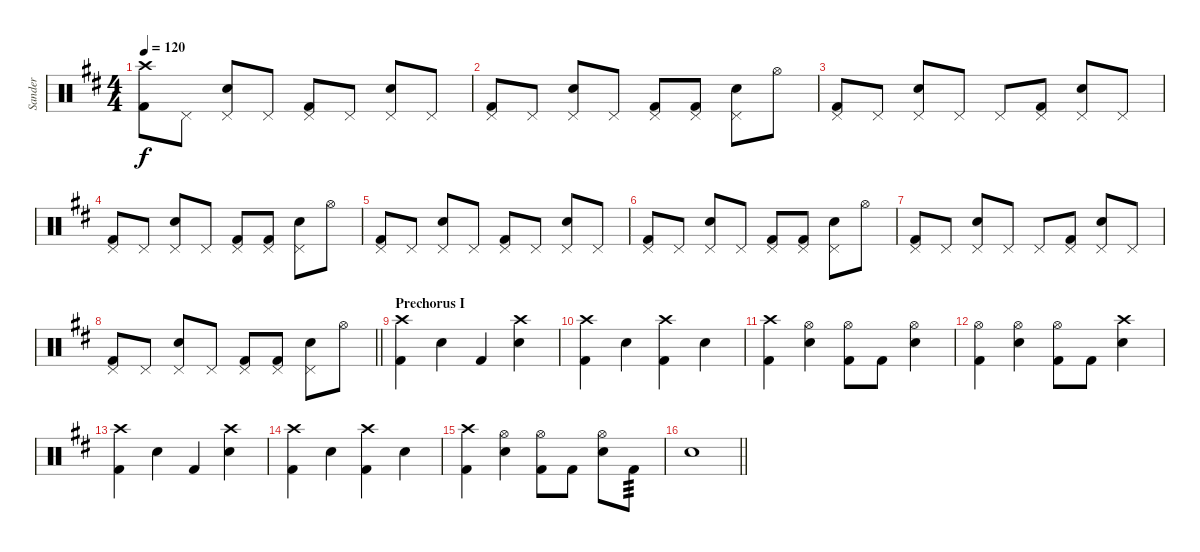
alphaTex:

\track ("Sander" "Sander") {instrument percussion}
\staff {score}
\articulation defaults
\ts (4 4)
\tempo 120
\clef neutral
\ks bminor
("Crash high (hit)" "Kick (hit) 2").8{dy f} "Pedal Hi-Hat (hit)".8 ("Pedal Hi-Hat (hit)" "Snare (hit) 2").8 "Pedal Hi-Hat (hit)".8 ("Pedal Hi-Hat (hit)" "Kick (hit) 2").8 "Pedal Hi-Hat (hit)".8 ("Pedal Hi-Hat (hit)" "Snare (hit) 2").8 "Pedal Hi-Hat (hit)".8 |
("Pedal Hi-Hat (hit)" "Kick (hit) 2").8 "Pedal Hi-Hat (hit)".8 ("Pedal Hi-Hat (hit)" "Snare (hit) 2").8 "Pedal Hi-Hat (hit)".8 ("Pedal Hi-Hat (hit)" "Kick (hit) 2").8 ("Pedal Hi-Hat (hit)" "Kick (hit) 2").8 ("Pedal Hi-Hat (hit)" "Snare (hit) 2").8 "Hi-Hat (open)".8 |
("Pedal Hi-Hat (hit)" "Kick (hit) 2").8 "Pedal Hi-Hat (hit)".8 ("Pedal Hi-Hat (hit)" "Snare (hit) 2").8 "Pedal Hi-Hat (hit)".8 "Pedal Hi-Hat (hit)".8 ("Pedal Hi-Hat (hit)" "Kick (hit) 2").8 ("Pedal Hi-Hat (hit)" "Snare (hit) 2").8 "Pedal Hi-Hat (hit)".8 |
("Pedal Hi-Hat (hit)" "Kick (hit) 2").8 "Pedal Hi-Hat (hit)".8 ("Pedal Hi-Hat (hit)" "Snare (hit) 2").8 "Pedal Hi-Hat (hit)".8 ("Pedal Hi-Hat (hit)" "Kick (hit) 2").8 ("Pedal Hi-Hat (hit)" "Kick (hit) 2").8 ("Pedal Hi-Hat (hit)" "Snare (hit) 2").8 "Hi-Hat (open)".8 |
("Pedal Hi-Hat (hit)" "Kick (hit) 2").8 "Pedal Hi-Hat (hit)".8 ("Pedal Hi-Hat (hit)" "Snare (hit) 2").8 "Pedal Hi-Hat (hit)".8 ("Pedal Hi-Hat (hit)" "Kick (hit) 2").8 "Pedal Hi-Hat (hit)".8 ("Pedal Hi-Hat (hit)" "Snare (hit) 2").8 "Pedal Hi-Hat (hit)".8 |
("Pedal Hi-Hat (hit)" "Kick (hit) 2").8 "Pedal Hi-Hat (hit)".8 ("Pedal Hi-Hat (hit)" "Snare (hit) 2").8 "Pedal Hi-Hat (hit)".8 ("Pedal Hi-Hat (hit)" "Kick (hit) 2").8 ("Pedal Hi-Hat (hit)" "Kick (hit) 2").8 ("Pedal Hi-Hat (hit)" "Snare (hit) 2").8 "Hi-Hat (open)".8 |
("Pedal Hi-Hat (hit)" "Kick (hit) 2").8 "Pedal Hi-Hat (hit)".8 ("Pedal Hi-Hat (hit)" "Snare (hit) 2").8 "Pedal Hi-Hat (hit)".8 "Pedal Hi-Hat (hit)".8 ("Pedal Hi-Hat (hit)" "Kick (hit) 2").8 ("Pedal Hi-Hat (hit)" "Snare (hit) 2").8 "Pedal Hi-Hat (hit)".8 |
\barLineRight lightlight
("Pedal Hi-Hat (hit)" "Kick (hit) 2").8 "Pedal Hi-Hat (hit)".8 ("Pedal Hi-Hat (hit)" "Snare (hit) 2").8 "Pedal Hi-Hat (hit)".8 ("Pedal Hi-Hat (hit)" "Kick (hit) 2").8 ("Pedal Hi-Hat (hit)" "Kick (hit) 2").8 ("Pedal Hi-Hat (hit)" "Snare (hit) 2").8 "Hi-Hat (open)".8 |
\section ("" "Prechorus I")
("Crash high (hit)" "Kick (hit) 2").4 "Snare (hit) 2".4 "Kick (hit) 2".4 ("Crash high (hit)" "Snare (hit) 2").4 |
("Crash high (hit)" "Kick (hit) 2").4 "Snare (hit) 2".4 ("Crash high (hit)" "Kick (hit) 2").4 "Snare (hit) 2".4 |
("Crash high (hit)" "Kick (hit) 2").4 ("Hi-Hat (open)" "Snare (hit) 2").4 ("Hi-Hat (open)" "Kick (hit) 2").8 "Kick (hit) 2".8 ("Hi-Hat (open)" "Snare (hit) 2").4 |
("Hi-Hat (open)" "Kick (hit) 2").4 ("Hi-Hat (open)" "Snare (hit) 2").4 ("Hi-Hat (open)" "Kick (hit) 2").8 "Kick (hit) 2".8 ("Crash high (hit)" "Snare (hit) 2").4 |
("Crash high (hit)" "Kick (hit) 2").4 "Snare (hit) 2".4 "Kick (hit) 2".4 ("Crash high (hit)" "Snare (hit) 2").4 |
("Crash high (hit)" "Kick (hit) 2").4 "Snare (hit) 2".4 ("Crash high (hit)" "Kick (hit) 2").4 "Snare (hit) 2".4 |
("Crash high (hit)" "Kick (hit) 2").4 ("Hi-Hat (open)" "Snare (hit) 2").4 ("Hi-Hat (open)" "Kick (hit) 2").8 "Kick (hit) 2".8 ("Hi-Hat (open)" "Snare (hit) 2").8 "Kick (hit) 2".8{tp 3} |
\barLineRight lightlight "Snare (hit) 2".1
